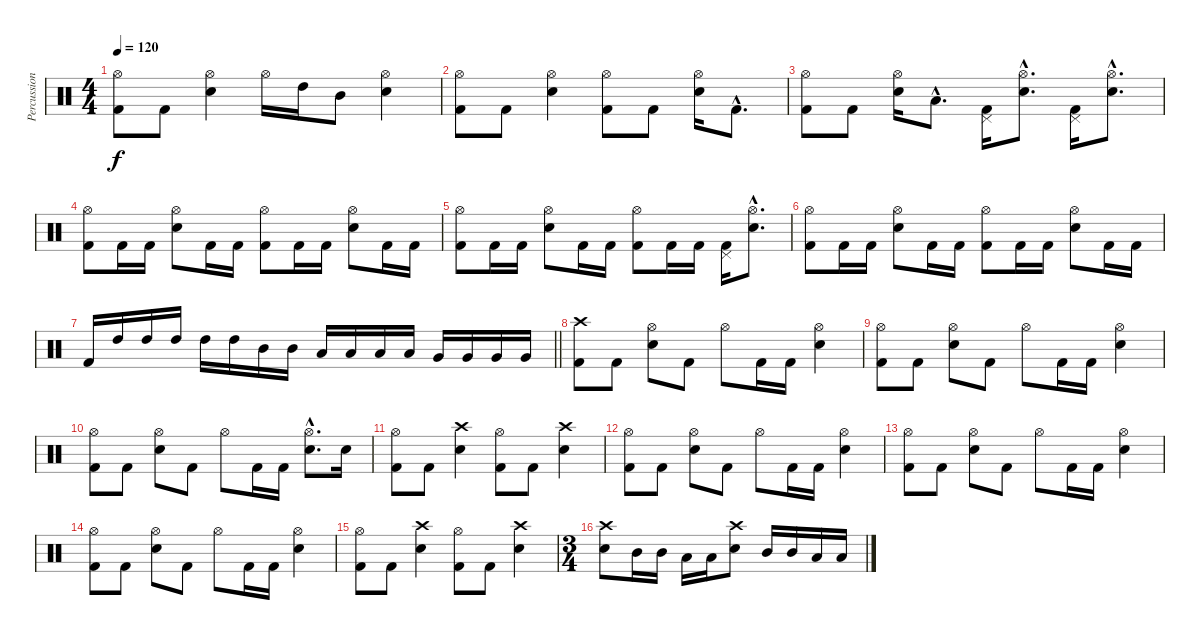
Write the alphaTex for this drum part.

\track ("Percussion" "Percussion") {instrument percussion}
\staff {score}
\articulation defaults
\ts (4 4)
\tempo 120
\clef neutral
\ks c
("Hi-Hat (open)" "Kick (hit) 2").8{dy f} "Kick (hit) 2".8 ("Hi-Hat (open)" "Snare (hit) 2").4 "Hi-Hat (open)".16 "High Tom (hit)".16 "Mid Tom (hit)".8 ("Hi-Hat (open)" "Snare (hit) 2").4 |
("Hi-Hat (open)" "Kick (hit) 2").8 "Kick (hit) 2".8 ("Hi-Hat (open)" "Snare (hit) 2").4 ("Hi-Hat (open)" "Kick (hit) 2").8 "Kick (hit) 2".8 ("Hi-Hat (open)" "Snare (hit) 2").16 "Kick (hit) 2"{hac}.8{d} |
("Hi-Hat (open)" "Kick (hit) 2").8 "Kick (hit) 2".8 ("Hi-Hat (open)" "Snare (hit) 2").16 "Low Floor Tom (hit)"{hac}.8{d} ("Pedal Hi-Hat (hit)" "Kick (hit) 2").16 ("Hi-Hat (open)"{hac} "Snare (hit) 2"{hac}).8{d} ("Pedal Hi-Hat (hit)" "Kick (hit) 2").16 ("Hi-Hat (open)"{hac} "Snare (hit) 2"{hac}).8{d} |
("Hi-Hat (open)" "Kick (hit) 2").8 "Kick (hit) 2".16 "Kick (hit) 2".16 ("Hi-Hat (open)" "Snare (hit) 2").8 "Kick (hit) 2".16 "Kick (hit) 2".16 ("Hi-Hat (open)" "Kick (hit) 2").8 "Kick (hit) 2".16 "Kick (hit) 2".16 ("Hi-Hat (open)" "Snare (hit) 2").8 "Kick (hit) 2".16 "Kick (hit) 2".16 |
("Hi-Hat (open)" "Kick (hit) 2").8 "Kick (hit) 2".16 "Kick (hit) 2".16 ("Hi-Hat (open)" "Snare (hit) 2").8 "Kick (hit) 2".16 "Kick (hit) 2".16 ("Hi-Hat (open)" "Kick (hit) 2").8 "Kick (hit) 2".16 "Kick (hit) 2".16 ("Pedal Hi-Hat (hit)" "Kick (hit) 2").16 ("Hi-Hat (open)"{hac} "Snare (hit) 2"{hac}).8{d} |
("Hi-Hat (open)" "Kick (hit) 2").8 "Kick (hit) 2".16 "Kick (hit) 2".16 ("Hi-Hat (open)" "Snare (hit) 2").8 "Kick (hit) 2".16 "Kick (hit) 2".16 ("Hi-Hat (open)" "Kick (hit) 2").8 "Kick (hit) 2".16 "Kick (hit) 2".16 ("Hi-Hat (open)" "Snare (hit) 2").8 "Kick (hit) 2".16 "Kick (hit) 2".16 |
\barLineRight lightlight "Kick (hit) 2".16 "High Tom (hit)".16 "High Tom (hit)".16 "High Tom (hit)".16 "High Tom (hit)".16 "High Tom (hit)".16 "Mid Tom (hit)".16 "Mid Tom (hit)".16 "Low Tom (hit)".16 "Low Tom (hit)".16 "Low Tom (hit)".16 "Low Tom (hit)".16 "Very Low Tom (hit)".16 "Very Low Tom (hit)".16 "Very Low Tom (hit)".16 "Very Low Tom (hit)".16
|
("Crash high (hit)" "Kick (hit) 2").8 "Kick (hit) 2".8 ("Hi-Hat (open)" "Snare (hit) 2").8 "Kick (hit) 2".8 "Hi-Hat (open)".8 "Kick (hit) 2".16 "Kick (hit) 2".16 ("Hi-Hat (open)" "Snare (hit) 2").4 |
("Hi-Hat (open)" "Kick (hit) 2").8 "Kick (hit) 2".8 ("Hi-Hat (open)" "Snare (hit) 2").8 "Kick (hit) 2".8 "Hi-Hat (open)".8 "Kick (hit) 2".16 "Kick (hit) 2".16 ("Hi-Hat (open)" "Snare (hit) 2").4 |
("Hi-Hat (open)" "Kick (hit) 2").8 "Kick (hit) 2".8 ("Hi-Hat (open)" "Snare (hit) 2").8 "Kick (hit) 2".8 "Hi-Hat (open)".8 "Kick (hit) 2".16 "Kick (hit) 2".16 ("Hi-Hat (open)"{hac} "Snare (hit) 2"{hac}).8{d} "Snare (hit) 2".16 |
("Hi-Hat (open)" "Kick (hit) 2").8 "Kick (hit) 2".8 ("Crash high (hit)" "Snare (hit) 2").4 ("Hi-Hat (open)" "Kick (hit) 2").8 "Kick (hit) 2".8 ("Crash high (hit)" "Snare (hit) 2").4 |
("Hi-Hat (open)" "Kick (hit) 2").8 "Kick (hit) 2".8 ("Hi-Hat (open)" "Snare (hit) 2").8 "Kick (hit) 2".8 "Hi-Hat (open)".8 "Kick (hit) 2".16 "Kick (hit) 2".16 ("Hi-Hat (open)" "Snare (hit) 2").4 |
("Hi-Hat (open)" "Kick (hit) 2").8 "Kick (hit) 2".8 ("Hi-Hat (open)" "Snare (hit) 2").8 "Kick (hit) 2".8 "Hi-Hat (open)".8 "Kick (hit) 2".16 "Kick (hit) 2".16 ("Hi-Hat (open)" "Snare (hit) 2").4 |
("Hi-Hat (open)" "Kick (hit) 2").8 "Kick (hit) 2".8 ("Hi-Hat (open)" "Snare (hit) 2").8 "Kick (hit) 2".8 "Hi-Hat (open)".8 "Kick (hit) 2".16 "Kick (hit) 2".16 ("Hi-Hat (open)" "Snare (hit) 2").4 |
("Hi-Hat (open)" "Kick (hit) 2").8 "Kick (hit) 2".8 ("Crash high (hit)" "Snare (hit) 2").4 ("Hi-Hat (open)" "Kick (hit) 2").8 "Kick (hit) 2".8 ("Crash high (hit)" "Snare (hit) 2").4 |
\ts (3 4)
("Crash high (hit)" "Snare (hit) 2").8 "Mid Tom (hit)".16 "Mid Tom (hit)".16 "Low Tom (hit)".16 "Low Tom (hit)".16 ("Crash high (hit)" "Snare (hit) 2").8 "Mid Tom (hit)".16 "Mid Tom (hit)".16 "Low Tom (hit)".16 "Low Tom (hit)".16
